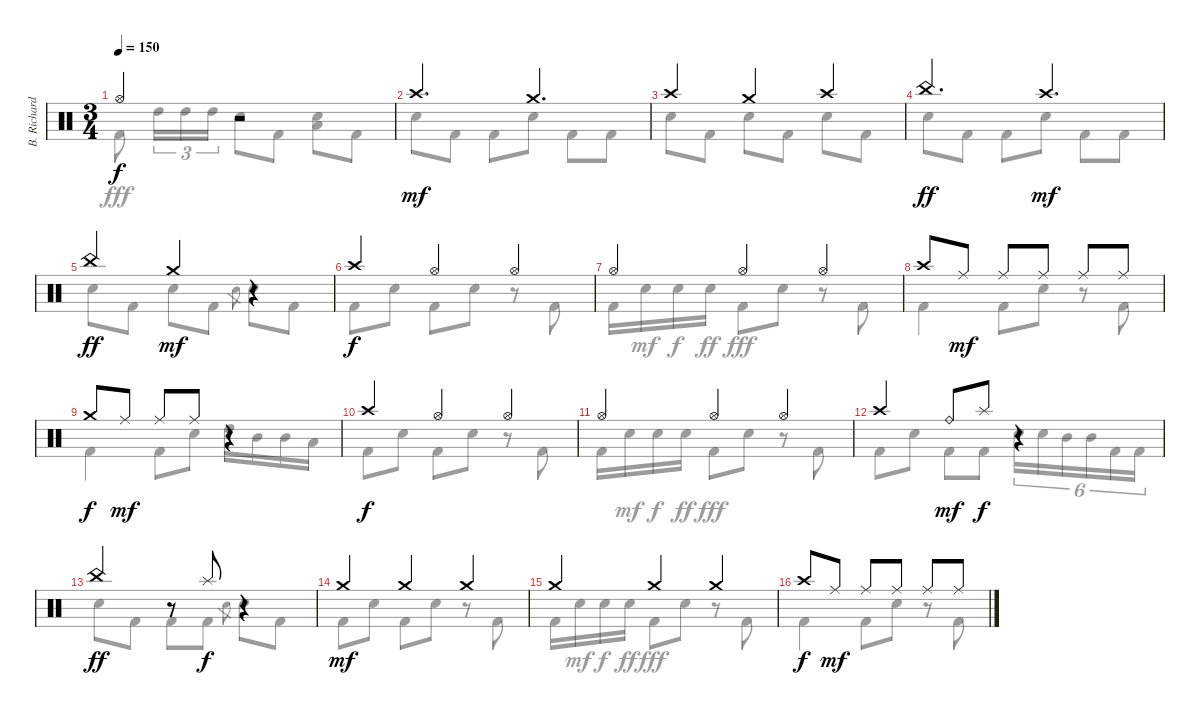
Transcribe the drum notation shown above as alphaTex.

\track ("B. Richardson Drums" "B. Richard") {instrument percussion}
\staff {score}
\articulation defaults
\voice
\ts (3 4)
\tempo 150
\clef neutral
\ks c "Hi-Hat (open)".4{dy f}
r.2 |
"Crash high (hit)".4{d dy mf} "Crash medium (hit)".4{d} |
"Crash high (hit)".4 "Crash medium (hit)".4 "Crash high (hit)".4 |
"China (hit)".4{d dy ff} "Crash high (hit)".4{d dy mf} |
"China (hit)".4{dy ff} "Crash medium (hit)".4{dy mf} r.4 |
"Crash high (hit)".4{dy f} "Hi-Hat (open)".4 "Hi-Hat (open)".4 |
"Hi-Hat (open)".4 "Hi-Hat (open)".4 "Hi-Hat (open)".4 |
"Crash high (hit)".8 "Ride (middle)".8{dy mf} "Ride (middle)".8 "Ride (middle)".8 "Ride (middle)".8 "Ride (middle)".8 |
"Crash medium (hit)".8{dy f} "Ride (middle)".8{dy mf} "Ride (middle)".8 "Ride (middle)".8 r.4 |
"Crash high (hit)".4{dy f} "Hi-Hat (open)".4 "Hi-Hat (open)".4 |
"Hi-Hat (open)".4 "Hi-Hat (open)".4 "Hi-Hat (open)".4 |
"Crash high (hit)".4 "Ride (bell)".8{dy mf} "Splash (hit)".8{dy f} r.4 |
"China (hit)".4{dy ff} r.8 "Splash (hit)".8{dy f} r.4 |
"Crash medium (hit)".4{dy mf} "Crash medium (hit)".4 "Crash medium (hit)".4 |
"Crash medium (hit)".4 "Crash medium (hit)".4 "Crash medium (hit)".4 |
"Crash high (hit)".8{dy f} "Ride (middle)".8{dy mf} "Ride (middle)".8 "Ride (middle)".8 "Ride (middle)".8 "Ride (middle)".8
\voice
\clef neutral
\ottava regular
\simile none
\ks c "Kick (hit) 2".8{dy fff} "High Tom (hit)".16{tu (3 2)} "High Tom (hit)".16{tu (3 2)} "High Tom (hit)".16{tu (3 2)} "Electric Snare (hit)".8 "Kick (hit) 2".8
("Electric Snare (hit)" "Low Tom (hit)").8 "Kick (hit) 2".8 |
"Electric Snare (hit)".8 "Kick (hit) 2".8 "Kick (hit) 2".8 "Electric Snare (hit)".8 "Kick (hit) 2".8 "Kick (hit) 2".8 |
"Electric Snare (hit)".8 "Kick (hit) 2".8 "Electric Snare (hit)".8 "Kick (hit) 2".8 "Electric Snare (hit)".8 "Kick (hit) 2".8 |
"Electric Snare (hit)".8 "Kick (hit) 2".8 "Kick (hit) 2".8 "Electric Snare (hit)".8 "Kick (hit) 2".8 "Kick (hit) 2".8 |
"Electric Snare (hit)".8 "Kick (hit) 2".8 "Electric Snare (hit)".8 "Kick (hit) 2".8 "Electric Snare (hit)".8{gr} "Electric Snare (hit)".8 "Kick (hit) 2".8 |
"Kick (hit) 2".8 "Electric Snare (hit)".8 "Kick (hit) 2".8 "Electric Snare (hit)".8 r.8 "Kick (hit) 2".8 |
"Kick (hit) 2".16 "Electric Snare (hit)".16{dy mf} "Electric Snare (hit)".16{dy f} "Electric Snare (hit)".16{dy ff} "Kick (hit) 2".8{dy fff} "Electric Snare (hit)".8 r.8 "Kick (hit) 2".8 |
"Kick (hit) 2".4 "Kick (hit) 2".8 "Electric Snare (hit)".8 r.8 "Kick (hit) 2".8 |
"Kick (hit) 2".4 "Kick (hit) 2".8 "Electric Snare (hit)".8 "High Tom (hit)".16 "Mid Tom (hit)".16 "Mid Tom (hit)".16 "Low Tom (hit)".16 |
"Kick (hit) 2".8 "Electric Snare (hit)".8 "Kick (hit) 2".8 "Electric Snare (hit)".8 r.8 "Kick (hit) 2".8 |
"Kick (hit) 2".16 "Electric Snare (hit)".16{dy mf} "Electric Snare (hit)".16{dy f} "Electric Snare (hit)".16{dy ff} "Kick (hit) 2".8{dy fff} "Electric Snare (hit)".8 r.8 "Kick (hit) 2".8 |
"Kick (hit) 2".8 "Electric Snare (hit)".8 "Kick (hit) 2".8 "Kick (hit) 2".8 "Electric Snare (hit)".16{tu (6 4)} "Electric Snare (hit)".16{tu (6 4)} "Mid Tom (hit)".16{tu (6 4)} "Mid Tom (hit)".16{tu (6 4)} "Kick (hit) 2".16{tu (6 4)} "Kick (hit) 2".16{tu (6 4)} |
"Electric Snare (hit)".8 "Kick (hit) 2".8 "Kick (hit) 2".8 "Kick (hit) 2".8 "Electric Snare (hit)".8{gr} "Electric Snare (hit)".8 "Kick (hit) 2".8 |
"Kick (hit) 2".8 "Electric Snare (hit)".8 "Kick (hit) 2".8 "Electric Snare (hit)".8 r.8 "Kick (hit) 2".8 |
"Kick (hit) 2".16 "Electric Snare (hit)".16{dy mf} "Electric Snare (hit)".16{dy f} "Electric Snare (hit)".16{dy ff} "Kick (hit) 2".8{dy fff} "Electric Snare (hit)".8 r.8 "Kick (hit) 2".8 |
"Kick (hit) 2".4 "Kick (hit) 2".8 "Electric Snare (hit)".8 r.8 "Kick (hit) 2".8
